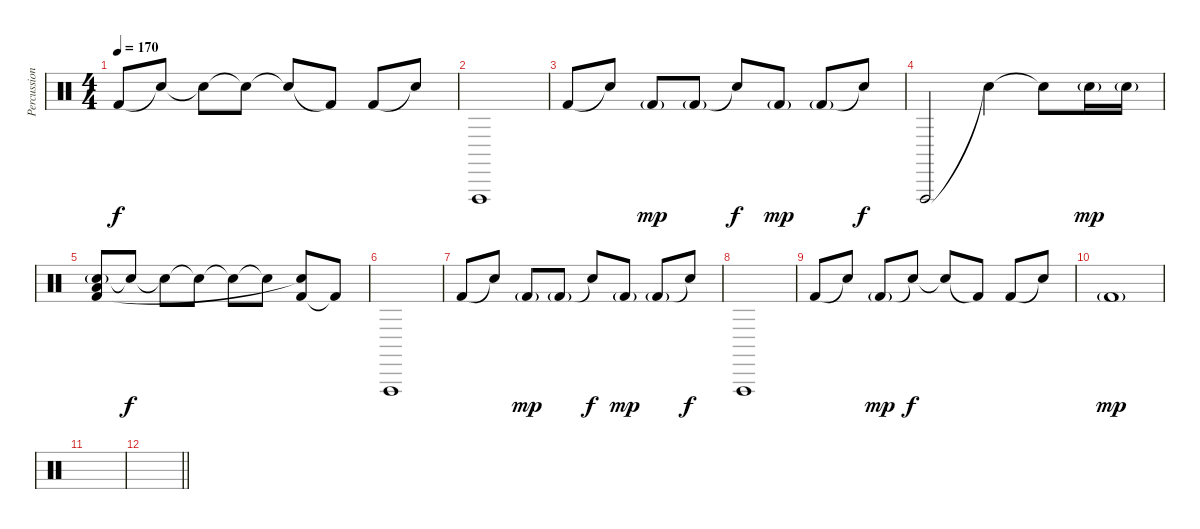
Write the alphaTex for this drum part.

\track ("Percussion" "Percussion") {instrument percussion}
\staff {score}
\articulation defaults
\ts (4 4)
\tempo 170
\clef neutral
\ks c "Kick (hit) 2".8{dy f} "Snare (hit)"{t}.8 "Snare (hit)"{t}.8 "Snare (hit)"{t}.8 "Snare (hit)"{t}.8 "Kick (hit) 2"{t}.8 "Kick (hit) 2".8 "Snare (hit)"{t}.8
|
"Vibraslap (hit)".1 |
"Kick (hit) 2".8 "Snare (hit)"{t}.8 "Kick (hit) 2"{g}.8{dy mp} "Kick (hit) 2"{g}.8 "Snare (hit)"{t}.8{dy f} "Kick (hit) 2"{g}.8{dy mp} "Kick (hit) 2"{g}.8 "Snare (hit)"{t}.8{dy f} |
"Vibraslap (hit)".2 "Snare (hit)"{t}.4 "Snare (hit)"{t}.8 "Electric Snare (hit)"{g}.16{dy mp} "Electric Snare (hit)"{g}.16 |
("Electric Snare (hit)"{g} "Kick (hit) 2" "Low Floor Tom (hit)").8 "Snare (hit)"{t}.8{dy f} "Snare (hit)"{t}.8 "Snare (hit)"{t}.8 "Snare (hit)"{t}.8 "Snare (hit)"{t}.8 ("Kick (hit) 2" "Snare (hit)"{t}).8 "Kick (hit) 2"{t}.8 |
"Vibraslap (hit)".1 |
"Kick (hit) 2".8 "Snare (hit)"{t}.8 "Kick (hit) 2"{g}.8{dy mp} "Kick (hit) 2"{g}.8 "Snare (hit)"{t}.8{dy f} "Kick (hit) 2"{g}.8{dy mp} "Kick (hit) 2"{g}.8 "Snare (hit)"{t}.8{dy f} |
"Vibraslap (hit)".1 |
"Kick (hit) 2".8 "Snare (hit)"{t}.8 "Kick (hit) 2"{g}.8{dy mp} "Snare (hit)"{t}.8{dy f} "Snare (hit)"{t}.8 "Kick (hit) 2"{t}.8 "Kick (hit) 2".8 "Snare (hit)"{t}.8 |
"Kick (hit) 2"{g}.1{dy mp} |
|
\barLineRight lightlight
